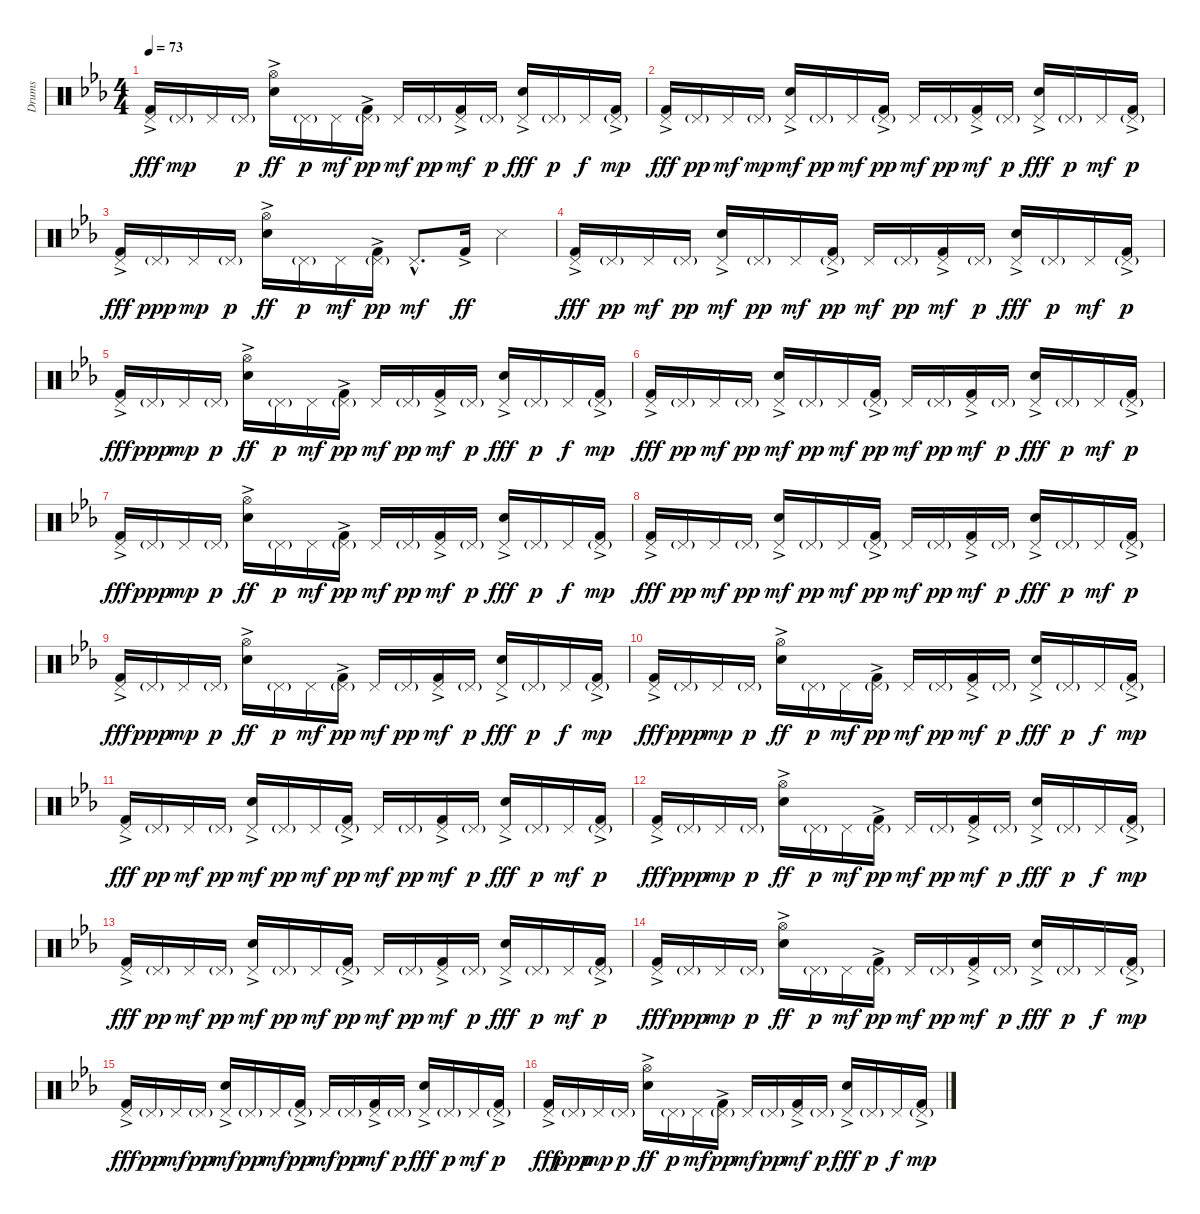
\track ("Drums" "Drums") {instrument percussion}
\staff {score}
\articulation defaults
\ts (4 4)
\tempo 73
\clef neutral
\ks eb
("Kick (hit) 2"{ac} "Pedal Hi-Hat (hit)").16{dy fff} "Pedal Hi-Hat (hit)"{g}.16{dy mp} "Pedal Hi-Hat (hit)".16 "Pedal Hi-Hat (hit)"{g}.16{dy p} ("Snare (hit) 2"{ac} "Hi-Hat (open)").16{dy ff} "Pedal Hi-Hat (hit)"{g}.16{dy p} "Pedal Hi-Hat (hit)".16{dy mf} ("Kick (hit) 2"{ac} "Pedal Hi-Hat (hit)"{g}).16{dy pp} "Pedal Hi-Hat (hit)".16{dy mf} "Pedal Hi-Hat (hit)"{g}.16{dy pp} ("Kick (hit) 2"{ac} "Pedal Hi-Hat (hit)").16{dy mf} "Pedal Hi-Hat (hit)"{g}.16{dy p} ("Snare (hit) 2"{ac} "Pedal Hi-Hat (hit)").16{dy fff} "Pedal Hi-Hat (hit)"{g}.16{dy p} "Pedal Hi-Hat (hit)".16{dy f} ("Kick (hit) 2"{ac} "Pedal Hi-Hat (hit)"{g}).16{dy mp} |
("Kick (hit) 2"{ac} "Pedal Hi-Hat (hit)").16{dy fff} "Pedal Hi-Hat (hit)"{g}.16{dy pp} "Pedal Hi-Hat (hit)".16{dy mf} "Pedal Hi-Hat (hit)"{g}.16{dy mp} ("Snare (hit) 2"{ac} "Pedal Hi-Hat (hit)").16{dy mf} "Pedal Hi-Hat (hit)"{g}.16{dy pp} "Pedal Hi-Hat (hit)".16{dy mf} ("Kick (hit) 2"{ac} "Pedal Hi-Hat (hit)"{g}).16{dy pp} "Pedal Hi-Hat (hit)".16{dy mf} "Pedal Hi-Hat (hit)"{g}.16{dy pp} ("Kick (hit) 2"{ac} "Pedal Hi-Hat (hit)").16{dy mf} "Pedal Hi-Hat (hit)"{g}.16{dy p} ("Snare (hit) 2"{ac} "Pedal Hi-Hat (hit)").16{dy fff} "Pedal Hi-Hat (hit)"{g}.16{dy p} "Pedal Hi-Hat (hit)".16{dy mf} ("Kick (hit) 2"{ac} "Pedal Hi-Hat (hit)"{g}).16{dy p} |
("Kick (hit) 2"{ac} "Pedal Hi-Hat (hit)").16{dy fff} "Pedal Hi-Hat (hit)"{g}.16{dy ppp} "Pedal Hi-Hat (hit)".16{dy mp} "Pedal Hi-Hat (hit)"{g}.16{dy p} ("Snare (hit) 2"{ac} "Hi-Hat (open)").16{dy ff} "Pedal Hi-Hat (hit)"{g}.16{dy p} "Pedal Hi-Hat (hit)".16{dy mf} ("Kick (hit) 2"{ac} "Pedal Hi-Hat (hit)"{g}).16{dy pp} "Pedal Hi-Hat (hit)"{hac}.8{d dy mf} "Kick (hit) 2"{ac}.16{dy ff} "Snare (side stick) 3".4 |
("Kick (hit) 2"{ac} "Pedal Hi-Hat (hit)").16{dy fff} "Pedal Hi-Hat (hit)"{g}.16{dy pp} "Pedal Hi-Hat (hit)".16{dy mf} "Pedal Hi-Hat (hit)"{g}.16{dy pp} ("Snare (hit) 2"{ac} "Pedal Hi-Hat (hit)").16{dy mf} "Pedal Hi-Hat (hit)"{g}.16{dy pp} "Pedal Hi-Hat (hit)".16{dy mf} ("Kick (hit) 2"{ac} "Pedal Hi-Hat (hit)"{g}).16{dy pp} "Pedal Hi-Hat (hit)".16{dy mf} "Pedal Hi-Hat (hit)"{g}.16{dy pp} ("Kick (hit) 2"{ac} "Pedal Hi-Hat (hit)").16{dy mf} "Pedal Hi-Hat (hit)"{g}.16{dy p} ("Snare (hit) 2"{ac} "Pedal Hi-Hat (hit)").16{dy fff} "Pedal Hi-Hat (hit)"{g}.16{dy p} "Pedal Hi-Hat (hit)".16{dy mf} ("Kick (hit) 2"{ac} "Pedal Hi-Hat (hit)"{g}).16{dy p} |
("Kick (hit) 2"{ac} "Pedal Hi-Hat (hit)").16{dy fff} "Pedal Hi-Hat (hit)"{g}.16{dy ppp} "Pedal Hi-Hat (hit)".16{dy mp} "Pedal Hi-Hat (hit)"{g}.16{dy p} ("Snare (hit) 2"{ac} "Hi-Hat (open)").16{dy ff} "Pedal Hi-Hat (hit)"{g}.16{dy p} "Pedal Hi-Hat (hit)".16{dy mf} ("Kick (hit) 2"{ac} "Pedal Hi-Hat (hit)"{g}).16{dy pp} "Pedal Hi-Hat (hit)".16{dy mf} "Pedal Hi-Hat (hit)"{g}.16{dy pp} ("Kick (hit) 2"{ac} "Pedal Hi-Hat (hit)").16{dy mf} "Pedal Hi-Hat (hit)"{g}.16{dy p} ("Snare (hit) 2"{ac} "Pedal Hi-Hat (hit)").16{dy fff} "Pedal Hi-Hat (hit)"{g}.16{dy p} "Pedal Hi-Hat (hit)".16{dy f} ("Kick (hit) 2"{ac} "Pedal Hi-Hat (hit)"{g}).16{dy mp} |
("Kick (hit) 2"{ac} "Pedal Hi-Hat (hit)").16{dy fff} "Pedal Hi-Hat (hit)"{g}.16{dy pp} "Pedal Hi-Hat (hit)".16{dy mf} "Pedal Hi-Hat (hit)"{g}.16{dy pp} ("Snare (hit) 2"{ac} "Pedal Hi-Hat (hit)").16{dy mf} "Pedal Hi-Hat (hit)"{g}.16{dy pp} "Pedal Hi-Hat (hit)".16{dy mf} ("Kick (hit) 2"{ac} "Pedal Hi-Hat (hit)"{g}).16{dy pp} "Pedal Hi-Hat (hit)".16{dy mf} "Pedal Hi-Hat (hit)"{g}.16{dy pp} ("Kick (hit) 2"{ac} "Pedal Hi-Hat (hit)").16{dy mf} "Pedal Hi-Hat (hit)"{g}.16{dy p} ("Snare (hit) 2"{ac} "Pedal Hi-Hat (hit)").16{dy fff} "Pedal Hi-Hat (hit)"{g}.16{dy p} "Pedal Hi-Hat (hit)".16{dy mf} ("Kick (hit) 2"{ac} "Pedal Hi-Hat (hit)"{g}).16{dy p} |
("Kick (hit) 2"{ac} "Pedal Hi-Hat (hit)").16{dy fff} "Pedal Hi-Hat (hit)"{g}.16{dy ppp} "Pedal Hi-Hat (hit)".16{dy mp} "Pedal Hi-Hat (hit)"{g}.16{dy p} ("Snare (hit) 2"{ac} "Hi-Hat (open)").16{dy ff} "Pedal Hi-Hat (hit)"{g}.16{dy p} "Pedal Hi-Hat (hit)".16{dy mf} ("Kick (hit) 2"{ac} "Pedal Hi-Hat (hit)"{g}).16{dy pp} "Pedal Hi-Hat (hit)".16{dy mf} "Pedal Hi-Hat (hit)"{g}.16{dy pp} ("Kick (hit) 2"{ac} "Pedal Hi-Hat (hit)").16{dy mf} "Pedal Hi-Hat (hit)"{g}.16{dy p} ("Snare (hit) 2"{ac} "Pedal Hi-Hat (hit)").16{dy fff} "Pedal Hi-Hat (hit)"{g}.16{dy p} "Pedal Hi-Hat (hit)".16{dy f} ("Kick (hit) 2"{ac} "Pedal Hi-Hat (hit)"{g}).16{dy mp} |
("Kick (hit) 2"{ac} "Pedal Hi-Hat (hit)").16{dy fff} "Pedal Hi-Hat (hit)"{g}.16{dy pp} "Pedal Hi-Hat (hit)".16{dy mf} "Pedal Hi-Hat (hit)"{g}.16{dy pp} ("Snare (hit) 2"{ac} "Pedal Hi-Hat (hit)").16{dy mf} "Pedal Hi-Hat (hit)"{g}.16{dy pp} "Pedal Hi-Hat (hit)".16{dy mf} ("Kick (hit) 2"{ac} "Pedal Hi-Hat (hit)"{g}).16{dy pp} "Pedal Hi-Hat (hit)".16{dy mf} "Pedal Hi-Hat (hit)"{g}.16{dy pp} ("Kick (hit) 2"{ac} "Pedal Hi-Hat (hit)").16{dy mf} "Pedal Hi-Hat (hit)"{g}.16{dy p} ("Snare (hit) 2"{ac} "Pedal Hi-Hat (hit)").16{dy fff} "Pedal Hi-Hat (hit)"{g}.16{dy p} "Pedal Hi-Hat (hit)".16{dy mf} ("Kick (hit) 2"{ac} "Pedal Hi-Hat (hit)"{g}).16{dy p} |
("Kick (hit) 2"{ac} "Pedal Hi-Hat (hit)").16{dy fff} "Pedal Hi-Hat (hit)"{g}.16{dy ppp} "Pedal Hi-Hat (hit)".16{dy mp} "Pedal Hi-Hat (hit)"{g}.16{dy p} ("Snare (hit) 2"{ac} "Hi-Hat (open)").16{dy ff} "Pedal Hi-Hat (hit)"{g}.16{dy p} "Pedal Hi-Hat (hit)".16{dy mf} ("Kick (hit) 2"{ac} "Pedal Hi-Hat (hit)"{g}).16{dy pp} "Pedal Hi-Hat (hit)".16{dy mf} "Pedal Hi-Hat (hit)"{g}.16{dy pp} ("Kick (hit) 2"{ac} "Pedal Hi-Hat (hit)").16{dy mf} "Pedal Hi-Hat (hit)"{g}.16{dy p} ("Snare (hit) 2"{ac} "Pedal Hi-Hat (hit)").16{dy fff} "Pedal Hi-Hat (hit)"{g}.16{dy p} "Pedal Hi-Hat (hit)".16{dy f} ("Kick (hit) 2"{ac} "Pedal Hi-Hat (hit)"{g}).16{dy mp} |
("Kick (hit) 2"{ac} "Pedal Hi-Hat (hit)").16{dy fff} "Pedal Hi-Hat (hit)"{g}.16{dy ppp} "Pedal Hi-Hat (hit)".16{dy mp} "Pedal Hi-Hat (hit)"{g}.16{dy p} ("Snare (hit) 2"{ac} "Hi-Hat (open)").16{dy ff} "Pedal Hi-Hat (hit)"{g}.16{dy p} "Pedal Hi-Hat (hit)".16{dy mf} ("Kick (hit) 2"{ac} "Pedal Hi-Hat (hit)"{g}).16{dy pp} "Pedal Hi-Hat (hit)".16{dy mf} "Pedal Hi-Hat (hit)"{g}.16{dy pp} ("Kick (hit) 2"{ac} "Pedal Hi-Hat (hit)").16{dy mf} "Pedal Hi-Hat (hit)"{g}.16{dy p} ("Snare (hit) 2"{ac} "Pedal Hi-Hat (hit)").16{dy fff} "Pedal Hi-Hat (hit)"{g}.16{dy p} "Pedal Hi-Hat (hit)".16{dy f} ("Kick (hit) 2"{ac} "Pedal Hi-Hat (hit)"{g}).16{dy mp} |
("Kick (hit) 2"{ac} "Pedal Hi-Hat (hit)").16{dy fff} "Pedal Hi-Hat (hit)"{g}.16{dy pp} "Pedal Hi-Hat (hit)".16{dy mf} "Pedal Hi-Hat (hit)"{g}.16{dy pp} ("Snare (hit) 2"{ac} "Pedal Hi-Hat (hit)").16{dy mf} "Pedal Hi-Hat (hit)"{g}.16{dy pp} "Pedal Hi-Hat (hit)".16{dy mf} ("Kick (hit) 2"{ac} "Pedal Hi-Hat (hit)"{g}).16{dy pp} "Pedal Hi-Hat (hit)".16{dy mf} "Pedal Hi-Hat (hit)"{g}.16{dy pp} ("Kick (hit) 2"{ac} "Pedal Hi-Hat (hit)").16{dy mf} "Pedal Hi-Hat (hit)"{g}.16{dy p} ("Snare (hit) 2"{ac} "Pedal Hi-Hat (hit)").16{dy fff} "Pedal Hi-Hat (hit)"{g}.16{dy p} "Pedal Hi-Hat (hit)".16{dy mf} ("Kick (hit) 2"{ac} "Pedal Hi-Hat (hit)"{g}).16{dy p} |
("Kick (hit) 2"{ac} "Pedal Hi-Hat (hit)").16{dy fff} "Pedal Hi-Hat (hit)"{g}.16{dy ppp} "Pedal Hi-Hat (hit)".16{dy mp} "Pedal Hi-Hat (hit)"{g}.16{dy p} ("Snare (hit) 2"{ac} "Hi-Hat (open)").16{dy ff} "Pedal Hi-Hat (hit)"{g}.16{dy p} "Pedal Hi-Hat (hit)".16{dy mf} ("Kick (hit) 2"{ac} "Pedal Hi-Hat (hit)"{g}).16{dy pp} "Pedal Hi-Hat (hit)".16{dy mf} "Pedal Hi-Hat (hit)"{g}.16{dy pp} ("Kick (hit) 2"{ac} "Pedal Hi-Hat (hit)").16{dy mf} "Pedal Hi-Hat (hit)"{g}.16{dy p} ("Snare (hit) 2"{ac} "Pedal Hi-Hat (hit)").16{dy fff} "Pedal Hi-Hat (hit)"{g}.16{dy p} "Pedal Hi-Hat (hit)".16{dy f} ("Kick (hit) 2"{ac} "Pedal Hi-Hat (hit)"{g}).16{dy mp} |
("Kick (hit) 2"{ac} "Pedal Hi-Hat (hit)").16{dy fff} "Pedal Hi-Hat (hit)"{g}.16{dy pp} "Pedal Hi-Hat (hit)".16{dy mf} "Pedal Hi-Hat (hit)"{g}.16{dy pp} ("Snare (hit) 2"{ac} "Pedal Hi-Hat (hit)").16{dy mf} "Pedal Hi-Hat (hit)"{g}.16{dy pp} "Pedal Hi-Hat (hit)".16{dy mf} ("Kick (hit) 2"{ac} "Pedal Hi-Hat (hit)"{g}).16{dy pp} "Pedal Hi-Hat (hit)".16{dy mf} "Pedal Hi-Hat (hit)"{g}.16{dy pp} ("Kick (hit) 2"{ac} "Pedal Hi-Hat (hit)").16{dy mf} "Pedal Hi-Hat (hit)"{g}.16{dy p} ("Snare (hit) 2"{ac} "Pedal Hi-Hat (hit)").16{dy fff} "Pedal Hi-Hat (hit)"{g}.16{dy p} "Pedal Hi-Hat (hit)".16{dy mf} ("Kick (hit) 2"{ac} "Pedal Hi-Hat (hit)"{g}).16{dy p} |
("Kick (hit) 2"{ac} "Pedal Hi-Hat (hit)").16{dy fff} "Pedal Hi-Hat (hit)"{g}.16{dy ppp} "Pedal Hi-Hat (hit)".16{dy mp} "Pedal Hi-Hat (hit)"{g}.16{dy p} ("Snare (hit) 2"{ac} "Hi-Hat (open)").16{dy ff} "Pedal Hi-Hat (hit)"{g}.16{dy p} "Pedal Hi-Hat (hit)".16{dy mf} ("Kick (hit) 2"{ac} "Pedal Hi-Hat (hit)"{g}).16{dy pp} "Pedal Hi-Hat (hit)".16{dy mf} "Pedal Hi-Hat (hit)"{g}.16{dy pp} ("Kick (hit) 2"{ac} "Pedal Hi-Hat (hit)").16{dy mf} "Pedal Hi-Hat (hit)"{g}.16{dy p} ("Snare (hit) 2"{ac} "Pedal Hi-Hat (hit)").16{dy fff} "Pedal Hi-Hat (hit)"{g}.16{dy p} "Pedal Hi-Hat (hit)".16{dy f} ("Kick (hit) 2"{ac} "Pedal Hi-Hat (hit)"{g}).16{dy mp} |
("Kick (hit) 2"{ac} "Pedal Hi-Hat (hit)").16{dy fff} "Pedal Hi-Hat (hit)"{g}.16{dy pp} "Pedal Hi-Hat (hit)".16{dy mf} "Pedal Hi-Hat (hit)"{g}.16{dy pp} ("Snare (hit) 2"{ac} "Pedal Hi-Hat (hit)").16{dy mf} "Pedal Hi-Hat (hit)"{g}.16{dy pp} "Pedal Hi-Hat (hit)".16{dy mf} ("Kick (hit) 2"{ac} "Pedal Hi-Hat (hit)"{g}).16{dy pp} "Pedal Hi-Hat (hit)".16{dy mf} "Pedal Hi-Hat (hit)"{g}.16{dy pp} ("Kick (hit) 2"{ac} "Pedal Hi-Hat (hit)").16{dy mf} "Pedal Hi-Hat (hit)"{g}.16{dy p} ("Snare (hit) 2"{ac} "Pedal Hi-Hat (hit)").16{dy fff} "Pedal Hi-Hat (hit)"{g}.16{dy p} "Pedal Hi-Hat (hit)".16{dy mf} ("Kick (hit) 2"{ac} "Pedal Hi-Hat (hit)"{g}).16{dy p} |
("Kick (hit) 2"{ac} "Pedal Hi-Hat (hit)").16{dy fff} "Pedal Hi-Hat (hit)"{g}.16{dy ppp} "Pedal Hi-Hat (hit)".16{dy mp} "Pedal Hi-Hat (hit)"{g}.16{dy p} ("Snare (hit) 2"{ac} "Hi-Hat (open)").16{dy ff} "Pedal Hi-Hat (hit)"{g}.16{dy p} "Pedal Hi-Hat (hit)".16{dy mf} ("Kick (hit) 2"{ac} "Pedal Hi-Hat (hit)"{g}).16{dy pp} "Pedal Hi-Hat (hit)".16{dy mf} "Pedal Hi-Hat (hit)"{g}.16{dy pp} ("Kick (hit) 2"{ac} "Pedal Hi-Hat (hit)").16{dy mf} "Pedal Hi-Hat (hit)"{g}.16{dy p} ("Snare (hit) 2"{ac} "Pedal Hi-Hat (hit)").16{dy fff} "Pedal Hi-Hat (hit)"{g}.16{dy p} "Pedal Hi-Hat (hit)".16{dy f} ("Kick (hit) 2"{ac} "Pedal Hi-Hat (hit)"{g}).16{dy mp}
